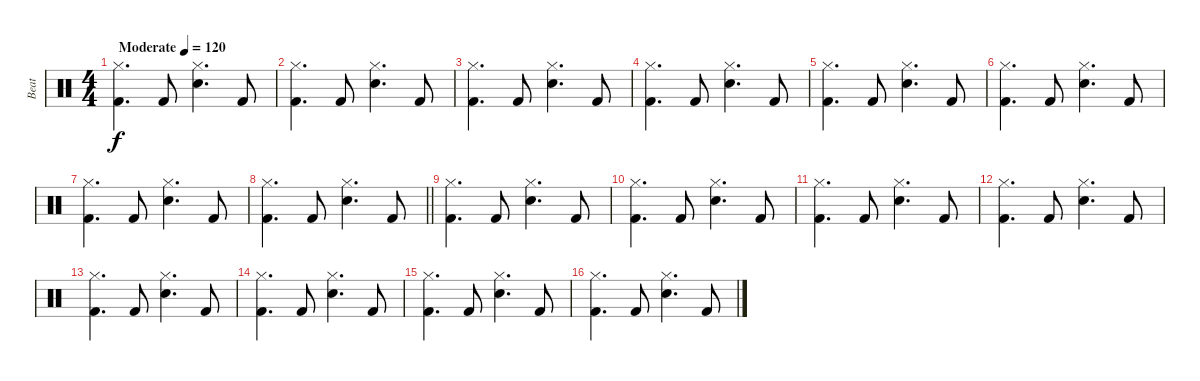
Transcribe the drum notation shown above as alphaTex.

\track ("Beat" "Beat") {instrument percussion}
\staff {score}
\articulation defaults
\ts (4 4)
\tempo (120 "Moderate")
\clef neutral
\ks c
("Hi-Hat (closed)" "Kick (hit) 2").4{d dy f} "Kick (hit) 2".8 ("Hi-Hat (closed)" "Snare (hit) 2").4{d} "Kick (hit) 2".8 |
("Hi-Hat (closed)" "Kick (hit) 2").4{d} "Kick (hit) 2".8 ("Hi-Hat (closed)" "Snare (hit) 2").4{d} "Kick (hit) 2".8 |
("Hi-Hat (closed)" "Kick (hit) 2").4{d} "Kick (hit) 2".8 ("Hi-Hat (closed)" "Snare (hit) 2").4{d} "Kick (hit) 2".8 |
("Hi-Hat (closed)" "Kick (hit) 2").4{d} "Kick (hit) 2".8 ("Hi-Hat (closed)" "Snare (hit) 2").4{d} "Kick (hit) 2".8 |
("Hi-Hat (closed)" "Kick (hit) 2").4{d} "Kick (hit) 2".8 ("Hi-Hat (closed)" "Snare (hit) 2").4{d} "Kick (hit) 2".8 |
("Hi-Hat (closed)" "Kick (hit) 2").4{d} "Kick (hit) 2".8 ("Hi-Hat (closed)" "Snare (hit) 2").4{d} "Kick (hit) 2".8 |
("Hi-Hat (closed)" "Kick (hit) 2").4{d} "Kick (hit) 2".8 ("Hi-Hat (closed)" "Snare (hit) 2").4{d} "Kick (hit) 2".8 |
\barLineRight lightlight
("Hi-Hat (closed)" "Kick (hit) 2").4{d} "Kick (hit) 2".8 ("Hi-Hat (closed)" "Snare (hit) 2").4{d} "Kick (hit) 2".8 |
("Hi-Hat (closed)" "Kick (hit) 2").4{d} "Kick (hit) 2".8 ("Hi-Hat (closed)" "Snare (hit) 2").4{d} "Kick (hit) 2".8 |
("Hi-Hat (closed)" "Kick (hit) 2").4{d} "Kick (hit) 2".8 ("Hi-Hat (closed)" "Snare (hit) 2").4{d} "Kick (hit) 2".8 |
("Hi-Hat (closed)" "Kick (hit) 2").4{d} "Kick (hit) 2".8 ("Hi-Hat (closed)" "Snare (hit) 2").4{d} "Kick (hit) 2".8 |
("Hi-Hat (closed)" "Kick (hit) 2").4{d} "Kick (hit) 2".8 ("Hi-Hat (closed)" "Snare (hit) 2").4{d} "Kick (hit) 2".8 |
("Hi-Hat (closed)" "Kick (hit) 2").4{d} "Kick (hit) 2".8 ("Hi-Hat (closed)" "Snare (hit) 2").4{d} "Kick (hit) 2".8 |
("Hi-Hat (closed)" "Kick (hit) 2").4{d} "Kick (hit) 2".8 ("Hi-Hat (closed)" "Snare (hit) 2").4{d} "Kick (hit) 2".8 |
("Hi-Hat (closed)" "Kick (hit) 2").4{d} "Kick (hit) 2".8 ("Hi-Hat (closed)" "Snare (hit) 2").4{d} "Kick (hit) 2".8 |
("Hi-Hat (closed)" "Kick (hit) 2").4{d} "Kick (hit) 2".8 ("Hi-Hat (closed)" "Snare (hit) 2").4{d} "Kick (hit) 2".8
